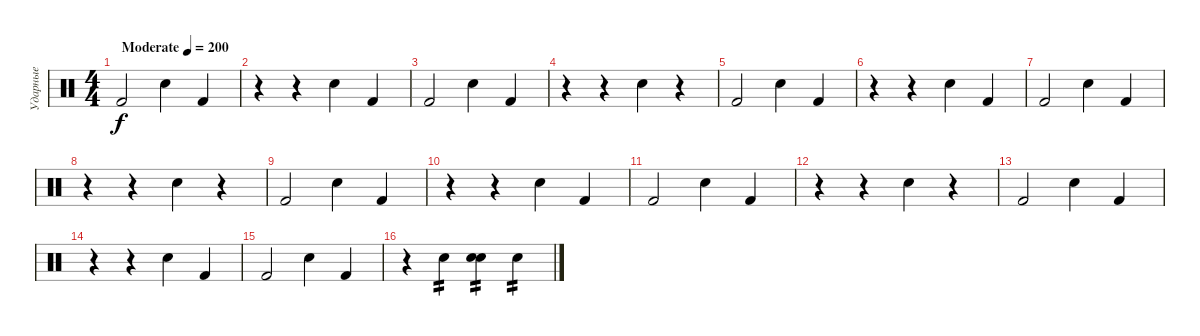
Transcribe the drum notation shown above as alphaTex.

\track ("Ударные" "Ударные") {instrument percussion}
\staff {score}
\articulation defaults
\ts (4 4)
\tempo (200 "Moderate")
\clef neutral
\ks c "Kick (hit) 2".2{dy f} "Snare (hit) 2".4 "Kick (hit) 2".4
|
r.4 r.4 "Snare (hit) 2".4 "Kick (hit) 2".4 |
"Kick (hit) 2".2 "Snare (hit) 2".4 "Kick (hit) 2".4 |
r.4 r.4 "Snare (hit) 2".4 r.4 |
"Kick (hit) 2".2 "Snare (hit) 2".4 "Kick (hit) 2".4 |
r.4 r.4 "Snare (hit) 2".4 "Kick (hit) 2".4 |
"Kick (hit) 2".2 "Snare (hit) 2".4 "Kick (hit) 2".4 |
r.4 r.4 "Snare (hit) 2".4 r.4 |
"Kick (hit) 2".2 "Snare (hit) 2".4 "Kick (hit) 2".4 |
r.4 r.4 "Snare (hit) 2".4 "Kick (hit) 2".4 |
"Kick (hit) 2".2 "Snare (hit) 2".4 "Kick (hit) 2".4 |
r.4 r.4 "Snare (hit) 2".4 r.4 |
"Kick (hit) 2".2 "Snare (hit) 2".4 "Kick (hit) 2".4 |
r.4 r.4 "Snare (hit) 2".4 "Kick (hit) 2".4 |
"Kick (hit) 2".2 "Snare (hit) 2".4 "Kick (hit) 2".4 |
r.4 "Snare (hit) 2".4{tp 2} ("Snare (hit) 2" "Snare (hit) 2").4{tp 2} "Snare (hit) 2".4{tp 2}
